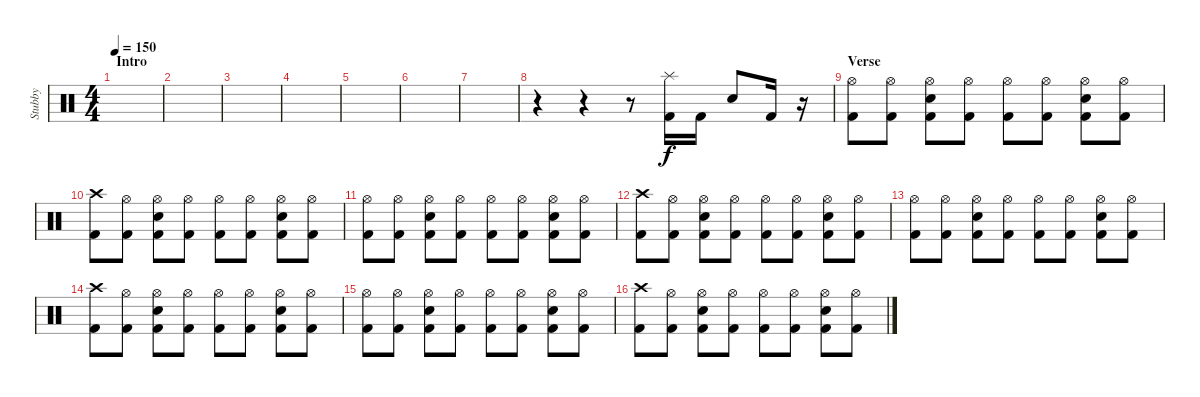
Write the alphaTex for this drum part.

\track ("Stubby" "Stubby") {instrument percussion}
\staff {score}
\articulation defaults
\ts (4 4)
\section ("" "Intro")
\tempo 150
\clef neutral
\ks c
|
|
|
|
|
|
|
r.4 r.4 r.8 ("Splash (hit)" "Kick (hit) 2").16 "Kick (hit) 2".16 "Snare (hit) 2".8 "Kick (hit) 2".16 r.16 |
\section ("" "Verse")
("Hi-Hat (open)" "Kick (hit) 2").8 ("Hi-Hat (open)" "Kick (hit) 2").8 ("Hi-Hat (open)" "Snare (hit) 2" "Kick (hit) 2").8 ("Hi-Hat (open)" "Kick (hit) 2").8 ("Hi-Hat (open)" "Kick (hit) 2").8 ("Hi-Hat (open)" "Kick (hit) 2").8 ("Hi-Hat (open)" "Snare (hit) 2" "Kick (hit) 2").8 ("Hi-Hat (open)" "Kick (hit) 2").8 |
("Crash high (hit)" "Kick (hit) 2").8 ("Hi-Hat (open)" "Kick (hit) 2").8 ("Hi-Hat (open)" "Snare (hit) 2" "Kick (hit) 2").8 ("Hi-Hat (open)" "Kick (hit) 2").8 ("Hi-Hat (open)" "Kick (hit) 2").8 ("Hi-Hat (open)" "Kick (hit) 2").8 ("Hi-Hat (open)" "Snare (hit) 2" "Kick (hit) 2").8 ("Hi-Hat (open)" "Kick (hit) 2").8 |
("Hi-Hat (open)" "Kick (hit) 2").8 ("Hi-Hat (open)" "Kick (hit) 2").8 ("Hi-Hat (open)" "Snare (hit) 2" "Kick (hit) 2").8 ("Hi-Hat (open)" "Kick (hit) 2").8 ("Hi-Hat (open)" "Kick (hit) 2").8 ("Hi-Hat (open)" "Kick (hit) 2").8 ("Hi-Hat (open)" "Snare (hit) 2" "Kick (hit) 2").8 ("Hi-Hat (open)" "Kick (hit) 2").8 |
("Crash high (hit)" "Kick (hit) 2").8 ("Hi-Hat (open)" "Kick (hit) 2").8 ("Hi-Hat (open)" "Snare (hit) 2" "Kick (hit) 2").8 ("Hi-Hat (open)" "Kick (hit) 2").8 ("Hi-Hat (open)" "Kick (hit) 2").8 ("Hi-Hat (open)" "Kick (hit) 2").8 ("Hi-Hat (open)" "Snare (hit) 2" "Kick (hit) 2").8 ("Hi-Hat (open)" "Kick (hit) 2").8 |
("Hi-Hat (open)" "Kick (hit) 2").8 ("Hi-Hat (open)" "Kick (hit) 2").8 ("Hi-Hat (open)" "Snare (hit) 2" "Kick (hit) 2").8 ("Hi-Hat (open)" "Kick (hit) 2").8 ("Hi-Hat (open)" "Kick (hit) 2").8 ("Hi-Hat (open)" "Kick (hit) 2").8 ("Hi-Hat (open)" "Snare (hit) 2" "Kick (hit) 2").8 ("Hi-Hat (open)" "Kick (hit) 2").8 |
("Crash high (hit)" "Kick (hit) 2").8 ("Hi-Hat (open)" "Kick (hit) 2").8 ("Hi-Hat (open)" "Snare (hit) 2" "Kick (hit) 2").8 ("Hi-Hat (open)" "Kick (hit) 2").8 ("Hi-Hat (open)" "Kick (hit) 2").8 ("Hi-Hat (open)" "Kick (hit) 2").8 ("Hi-Hat (open)" "Snare (hit) 2" "Kick (hit) 2").8 ("Hi-Hat (open)" "Kick (hit) 2").8 |
("Hi-Hat (open)" "Kick (hit) 2").8 ("Hi-Hat (open)" "Kick (hit) 2").8 ("Hi-Hat (open)" "Snare (hit) 2" "Kick (hit) 2").8 ("Hi-Hat (open)" "Kick (hit) 2").8 ("Hi-Hat (open)" "Kick (hit) 2").8 ("Hi-Hat (open)" "Kick (hit) 2").8 ("Hi-Hat (open)" "Snare (hit) 2" "Kick (hit) 2").8 ("Hi-Hat (open)" "Kick (hit) 2").8 |
("Crash high (hit)" "Kick (hit) 2").8 ("Hi-Hat (open)" "Kick (hit) 2").8 ("Hi-Hat (open)" "Snare (hit) 2" "Kick (hit) 2").8 ("Hi-Hat (open)" "Kick (hit) 2").8 ("Hi-Hat (open)" "Kick (hit) 2").8 ("Hi-Hat (open)" "Kick (hit) 2").8 ("Hi-Hat (open)" "Snare (hit) 2" "Kick (hit) 2").8 ("Hi-Hat (open)" "Kick (hit) 2").8
